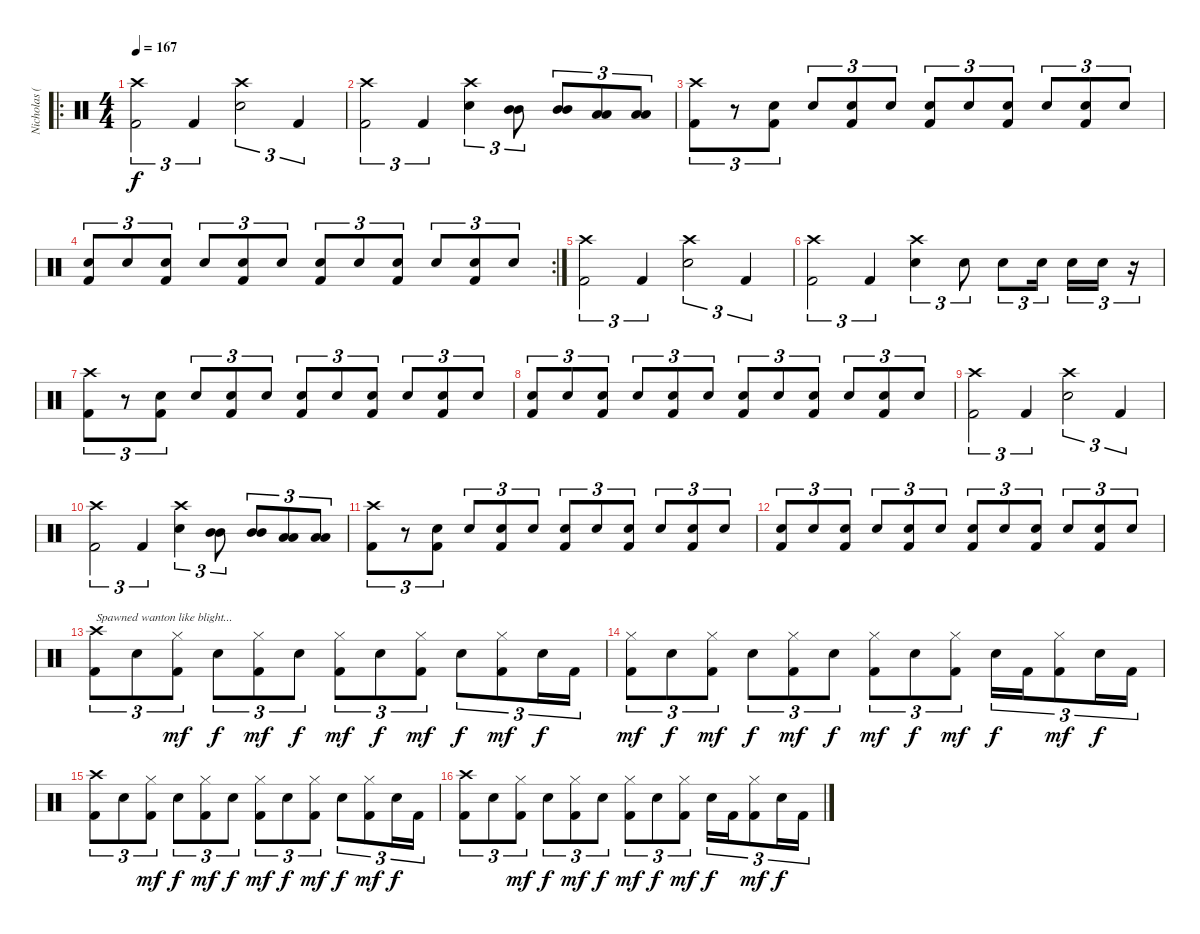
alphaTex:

\track ("Nicholas (Drums)" "Nicholas (") {instrument percussion}
\staff {score}
\articulation defaults
\ro
\ts (4 4)
\tempo 167
\clef neutral
\ks c
("Crash high (hit)" "Kick (hit) 2").2{tu (3 2) dy f balance 8} "Kick (hit) 2".4{tu (3 2)} ("Crash high (hit)" "Electric Snare (hit)").2{tu (3 2)} "Kick (hit) 2".4{tu (3 2)} |
("Crash high (hit)" "Kick (hit) 2").2{tu (3 2)} "Kick (hit) 2".4{tu (3 2)} ("Crash high (hit)" "Electric Snare (hit)").4{tu (3 2)} ("Mid Tom (hit)" "Mid Tom (hit)").8{tu (3 2)} ("Mid Tom (hit)" "Mid Tom (hit)").8{tu (3 2)} ("Low Tom (hit)" "Low Tom (hit)").8{tu (3 2)} ("Low Tom (hit)" "Low Tom (hit)").8{tu (3 2)} |
("Crash high (hit)" "Kick (hit) 2").8{tu (3 2)} r.8{tu (3 2)} ("Electric Snare (hit)" "Kick (hit) 2").8{tu (3 2)} "Electric Snare (hit)".8{tu (3 2)} ("Electric Snare (hit)" "Kick (hit) 2").8{tu (3 2)} "Electric Snare (hit)".8{tu (3 2)} ("Electric Snare (hit)" "Kick (hit) 2").8{tu (3 2)} "Electric Snare (hit)".8{tu (3 2)} ("Electric Snare (hit)" "Kick (hit) 2").8{tu (3 2)} "Electric Snare (hit)".8{tu (3 2)} ("Electric Snare (hit)" "Kick (hit) 2").8{tu (3 2)} "Electric Snare (hit)".8{tu (3 2)} |
\rc 2
("Electric Snare (hit)" "Kick (hit) 2").8{tu (3 2)} "Electric Snare (hit)".8{tu (3 2)} ("Electric Snare (hit)" "Kick (hit) 2").8{tu (3 2)} "Electric Snare (hit)".8{tu (3 2)} ("Electric Snare (hit)" "Kick (hit) 2").8{tu (3 2)} "Electric Snare (hit)".8{tu (3 2)} ("Electric Snare (hit)" "Kick (hit) 2").8{tu (3 2)} "Electric Snare (hit)".8{tu (3 2)} ("Electric Snare (hit)" "Kick (hit) 2").8{tu (3 2)} "Electric Snare (hit)".8{tu (3 2)} ("Electric Snare (hit)" "Kick (hit) 2").8{tu (3 2)} "Electric Snare (hit)".8{tu (3 2)} |
("Crash high (hit)" "Kick (hit) 2").2{tu (3 2)} "Kick (hit) 2".4{tu (3 2)} ("Crash high (hit)" "Electric Snare (hit)").2{tu (3 2)} "Kick (hit) 2".4{tu (3 2)} |
("Crash high (hit)" "Kick (hit) 2").2{tu (3 2)} "Kick (hit) 2".4{tu (3 2)} ("Crash high (hit)" "Electric Snare (hit)").4{tu (3 2)} "Electric Snare (hit)".8{tu (3 2)} "Electric Snare (hit)".8{tu (3 2)} "Electric Snare (hit)".16{tu (3 2)} "Electric Snare (hit)".16{tu (3 2)} "Electric Snare (hit)".16{tu (3 2)} r.16{tu (3 2)} |
("Crash high (hit)" "Kick (hit) 2").8{tu (3 2)} r.8{tu (3 2)} ("Electric Snare (hit)" "Kick (hit) 2").8{tu (3 2)} "Electric Snare (hit)".8{tu (3 2)} ("Electric Snare (hit)" "Kick (hit) 2").8{tu (3 2)} "Electric Snare (hit)".8{tu (3 2)} ("Electric Snare (hit)" "Kick (hit) 2").8{tu (3 2)} "Electric Snare (hit)".8{tu (3 2)} ("Electric Snare (hit)" "Kick (hit) 2").8{tu (3 2)} "Electric Snare (hit)".8{tu (3 2)} ("Electric Snare (hit)" "Kick (hit) 2").8{tu (3 2)} "Electric Snare (hit)".8{tu (3 2)} |
("Electric Snare (hit)" "Kick (hit) 2").8{tu (3 2)} "Electric Snare (hit)".8{tu (3 2)} ("Electric Snare (hit)" "Kick (hit) 2").8{tu (3 2)} "Electric Snare (hit)".8{tu (3 2)} ("Electric Snare (hit)" "Kick (hit) 2").8{tu (3 2)} "Electric Snare (hit)".8{tu (3 2)} ("Electric Snare (hit)" "Kick (hit) 2").8{tu (3 2)} "Electric Snare (hit)".8{tu (3 2)} ("Electric Snare (hit)" "Kick (hit) 2").8{tu (3 2)} "Electric Snare (hit)".8{tu (3 2)} ("Electric Snare (hit)" "Kick (hit) 2").8{tu (3 2)} "Electric Snare (hit)".8{tu (3 2)} |
("Crash high (hit)" "Kick (hit) 2").2{tu (3 2)} "Kick (hit) 2".4{tu (3 2)} ("Crash high (hit)" "Electric Snare (hit)").2{tu (3 2)} "Kick (hit) 2".4{tu (3 2)} |
("Crash high (hit)" "Kick (hit) 2").2{tu (3 2)} "Kick (hit) 2".4{tu (3 2)} ("Crash high (hit)" "Electric Snare (hit)").4{tu (3 2)} ("Mid Tom (hit)" "Mid Tom (hit)").8{tu (3 2)} ("Mid Tom (hit)" "Mid Tom (hit)").8{tu (3 2)} ("Low Tom (hit)" "Low Tom (hit)").8{tu (3 2)} ("Low Tom (hit)" "Low Tom (hit)").8{tu (3 2)} |
("Crash high (hit)" "Kick (hit) 2").8{tu (3 2)} r.8{tu (3 2)} ("Electric Snare (hit)" "Kick (hit) 2").8{tu (3 2)} "Electric Snare (hit)".8{tu (3 2)} ("Electric Snare (hit)" "Kick (hit) 2").8{tu (3 2)} "Electric Snare (hit)".8{tu (3 2)} ("Electric Snare (hit)" "Kick (hit) 2").8{tu (3 2)} "Electric Snare (hit)".8{tu (3 2)} ("Electric Snare (hit)" "Kick (hit) 2").8{tu (3 2)} "Electric Snare (hit)".8{tu (3 2)} ("Electric Snare (hit)" "Kick (hit) 2").8{tu (3 2)} "Electric Snare (hit)".8{tu (3 2)} |
("Electric Snare (hit)" "Kick (hit) 2").8{tu (3 2)} "Electric Snare (hit)".8{tu (3 2)} ("Electric Snare (hit)" "Kick (hit) 2").8{tu (3 2)} "Electric Snare (hit)".8{tu (3 2)} ("Electric Snare (hit)" "Kick (hit) 2").8{tu (3 2)} "Electric Snare (hit)".8{tu (3 2)} ("Electric Snare (hit)" "Kick (hit) 2").8{tu (3 2)} "Electric Snare (hit)".8{tu (3 2)} ("Electric Snare (hit)" "Kick (hit) 2").8{tu (3 2)} "Electric Snare (hit)".8{tu (3 2)} ("Electric Snare (hit)" "Kick (hit) 2").8{tu (3 2)} "Electric Snare (hit)".8{tu (3 2)} |
("Crash high (hit)" "Kick (hit) 2").8{tu (3 2) txt "Spawned wanton like blight..."} "Electric Snare (hit)".8{tu (3 2)} ("Hi-Hat (closed)" "Kick (hit) 2").8{tu (3 2) dy mf} "Electric Snare (hit)".8{tu (3 2) dy f} ("Hi-Hat (closed)" "Kick (hit) 2").8{tu (3 2) dy mf} "Electric Snare (hit)".8{tu (3 2) dy f} ("Hi-Hat (closed)" "Kick (hit) 2").8{tu (3 2) dy mf} "Electric Snare (hit)".8{tu (3 2) dy f} ("Hi-Hat (closed)" "Kick (hit) 2").8{tu (3 2) dy mf} "Electric Snare (hit)".8{tu (3 2) dy f} ("Hi-Hat (closed)" "Kick (hit) 2").8{tu (3 2) dy mf} "Electric Snare (hit)".16{tu (3 2) dy f} "Kick (hit) 2".16{tu (3 2)} |
("Hi-Hat (closed)" "Kick (hit) 2").8{tu (3 2) dy mf} "Electric Snare (hit)".8{tu (3 2) dy f} ("Hi-Hat (closed)" "Kick (hit) 2").8{tu (3 2) dy mf} "Electric Snare (hit)".8{tu (3 2) dy f} ("Hi-Hat (closed)" "Kick (hit) 2").8{tu (3 2) dy mf} "Electric Snare (hit)".8{tu (3 2) dy f} ("Hi-Hat (closed)" "Kick (hit) 2").8{tu (3 2) dy mf} "Electric Snare (hit)".8{tu (3 2) dy f} ("Hi-Hat (closed)" "Kick (hit) 2").8{tu (3 2) dy mf} "Electric Snare (hit)".16{tu (3 2) dy f} "Kick (hit) 2".16{tu (3 2)} ("Hi-Hat (closed)" "Kick (hit) 2").8{tu (3 2) dy mf} "Electric Snare (hit)".16{tu (3 2) dy f} "Kick (hit) 2".16{tu (3 2)} |
("Crash high (hit)" "Kick (hit) 2").8{tu (3 2)} "Electric Snare (hit)".8{tu (3 2)} ("Hi-Hat (closed)" "Kick (hit) 2").8{tu (3 2) dy mf} "Electric Snare (hit)".8{tu (3 2) dy f} ("Hi-Hat (closed)" "Kick (hit) 2").8{tu (3 2) dy mf} "Electric Snare (hit)".8{tu (3 2) dy f} ("Hi-Hat (closed)" "Kick (hit) 2").8{tu (3 2) dy mf} "Electric Snare (hit)".8{tu (3 2) dy f} ("Hi-Hat (closed)" "Kick (hit) 2").8{tu (3 2) dy mf} "Electric Snare (hit)".8{tu (3 2) dy f} ("Hi-Hat (closed)" "Kick (hit) 2").8{tu (3 2) dy mf} "Electric Snare (hit)".16{tu (3 2) dy f} "Kick (hit) 2".16{tu (3 2)} |
("Crash high (hit)" "Kick (hit) 2").8{tu (3 2)} "Electric Snare (hit)".8{tu (3 2)} ("Hi-Hat (closed)" "Kick (hit) 2").8{tu (3 2) dy mf} "Electric Snare (hit)".8{tu (3 2) dy f} ("Hi-Hat (closed)" "Kick (hit) 2").8{tu (3 2) dy mf} "Electric Snare (hit)".8{tu (3 2) dy f} ("Hi-Hat (closed)" "Kick (hit) 2").8{tu (3 2) dy mf} "Electric Snare (hit)".8{tu (3 2) dy f} ("Hi-Hat (closed)" "Kick (hit) 2").8{tu (3 2) dy mf} "Electric Snare (hit)".16{tu (3 2) dy f} "Kick (hit) 2".16{tu (3 2)} ("Hi-Hat (closed)" "Kick (hit) 2").8{tu (3 2) dy mf} "Electric Snare (hit)".16{tu (3 2) dy f} "Kick (hit) 2".16{tu (3 2)}
